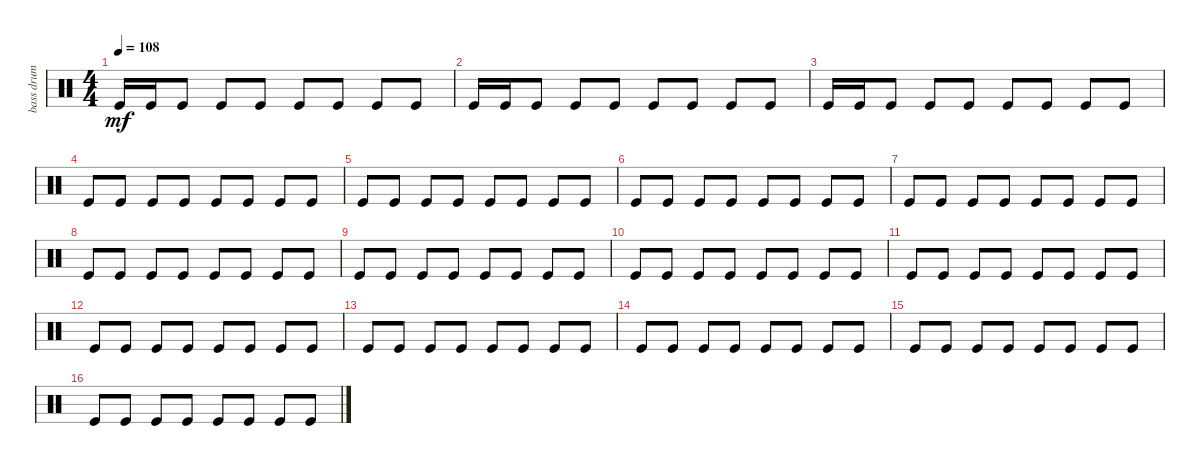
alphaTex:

\track ("bass drum           " "bass drum ") {instrument percussion}
\staff {score}
\articulation defaults
\ts (4 4)
\tempo 108
\clef neutral
\ks c "Kick (hit)".16{dy mf} "Kick (hit)".16 "Kick (hit)".8 "Kick (hit)".8 "Kick (hit)".8 "Kick (hit)".8 "Kick (hit)".8 "Kick (hit)".8 "Kick (hit)".8
|
"Kick (hit)".16 "Kick (hit)".16 "Kick (hit)".8 "Kick (hit)".8 "Kick (hit)".8 "Kick (hit)".8 "Kick (hit)".8 "Kick (hit)".8 "Kick (hit)".8 |
"Kick (hit)".16 "Kick (hit)".16 "Kick (hit)".8 "Kick (hit)".8 "Kick (hit)".8 "Kick (hit)".8 "Kick (hit)".8 "Kick (hit)".8 "Kick (hit)".8 |
"Kick (hit)".8 "Kick (hit)".8 "Kick (hit)".8 "Kick (hit)".8 "Kick (hit)".8 "Kick (hit)".8 "Kick (hit)".8 "Kick (hit)".8 |
"Kick (hit)".8 "Kick (hit)".8 "Kick (hit)".8 "Kick (hit)".8 "Kick (hit)".8 "Kick (hit)".8 "Kick (hit)".8 "Kick (hit)".8 |
"Kick (hit)".8 "Kick (hit)".8 "Kick (hit)".8 "Kick (hit)".8 "Kick (hit)".8 "Kick (hit)".8 "Kick (hit)".8 "Kick (hit)".8 |
"Kick (hit)".8 "Kick (hit)".8 "Kick (hit)".8 "Kick (hit)".8 "Kick (hit)".8 "Kick (hit)".8 "Kick (hit)".8 "Kick (hit)".8 |
"Kick (hit)".8 "Kick (hit)".8 "Kick (hit)".8 "Kick (hit)".8 "Kick (hit)".8 "Kick (hit)".8 "Kick (hit)".8 "Kick (hit)".8 |
"Kick (hit)".8 "Kick (hit)".8 "Kick (hit)".8 "Kick (hit)".8 "Kick (hit)".8 "Kick (hit)".8 "Kick (hit)".8 "Kick (hit)".8 |
"Kick (hit)".8 "Kick (hit)".8 "Kick (hit)".8 "Kick (hit)".8 "Kick (hit)".8 "Kick (hit)".8 "Kick (hit)".8 "Kick (hit)".8 |
"Kick (hit)".8 "Kick (hit)".8 "Kick (hit)".8 "Kick (hit)".8 "Kick (hit)".8 "Kick (hit)".8 "Kick (hit)".8 "Kick (hit)".8 |
"Kick (hit)".8 "Kick (hit)".8 "Kick (hit)".8 "Kick (hit)".8 "Kick (hit)".8 "Kick (hit)".8 "Kick (hit)".8 "Kick (hit)".8 |
"Kick (hit)".8 "Kick (hit)".8 "Kick (hit)".8 "Kick (hit)".8 "Kick (hit)".8 "Kick (hit)".8 "Kick (hit)".8 "Kick (hit)".8 |
"Kick (hit)".8 "Kick (hit)".8 "Kick (hit)".8 "Kick (hit)".8 "Kick (hit)".8 "Kick (hit)".8 "Kick (hit)".8 "Kick (hit)".8 |
"Kick (hit)".8 "Kick (hit)".8 "Kick (hit)".8 "Kick (hit)".8 "Kick (hit)".8 "Kick (hit)".8 "Kick (hit)".8 "Kick (hit)".8 |
"Kick (hit)".8 "Kick (hit)".8 "Kick (hit)".8 "Kick (hit)".8 "Kick (hit)".8 "Kick (hit)".8 "Kick (hit)".8 "Kick (hit)".8
